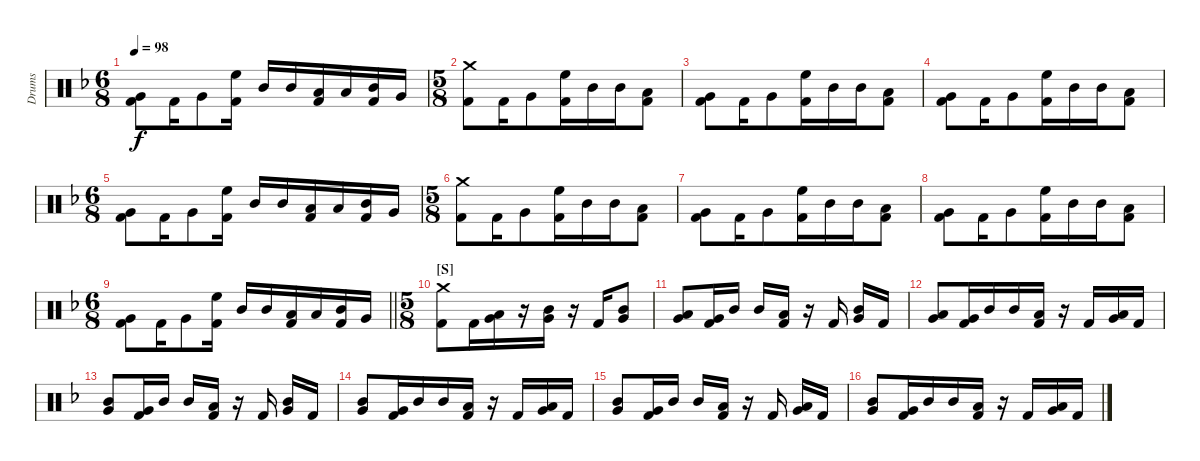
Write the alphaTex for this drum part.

\track ("Drums" "Drums") {instrument percussion}
\staff {score}
\articulation defaults
\ts (6 8)
\tempo 98
\clef neutral
\ks dminor
("Very Low Tom (hit)" "Kick (hit) 2").8{dy f} "Kick (hit) 2".16 "Very Low Tom (hit)".8{beam merge} ("High Floor Tom (hit)" "Kick (hit) 2").16{beam split} "Mid Tom (hit)".16 "Mid Tom (hit)".16 ("Low Tom (hit)" "Kick (hit) 2").16 "Low Tom (hit)".16 ("Mid Tom (hit)" "Kick (hit) 2").16 "Very Low Tom (hit)".16 |
\ts (5 8)
("Crash medium (hit)" "Kick (hit) 2").8{beam merge} "Kick (hit) 2".16 "Very Low Tom (hit)".8 ("High Floor Tom (hit)" "Kick (hit) 2").16{beam merge} "Mid Tom (hit)".16 "Mid Tom (hit)".16{beam merge} ("Low Tom (hit)" "Kick (hit) 2").8 |
("Very Low Tom (hit)" "Kick (hit) 2").8{beam merge} "Kick (hit) 2".16 "Very Low Tom (hit)".8 ("High Floor Tom (hit)" "Kick (hit) 2").16{beam merge} "Mid Tom (hit)".16 "Mid Tom (hit)".16{beam merge} ("Low Tom (hit)" "Kick (hit) 2").8 |
("Very Low Tom (hit)" "Kick (hit) 2").8{beam merge} "Kick (hit) 2".16 "Very Low Tom (hit)".8 ("High Floor Tom (hit)" "Kick (hit) 2").16{beam merge} "Mid Tom (hit)".16 "Mid Tom (hit)".16{beam merge} ("Low Tom (hit)" "Kick (hit) 2").8 |
\ts (6 8)
("Very Low Tom (hit)" "Kick (hit) 2").8 "Kick (hit) 2".16 "Very Low Tom (hit)".8{beam merge} ("High Floor Tom (hit)" "Kick (hit) 2").16{beam split} "Mid Tom (hit)".16 "Mid Tom (hit)".16 ("Low Tom (hit)" "Kick (hit) 2").16 "Low Tom (hit)".16 ("Mid Tom (hit)" "Kick (hit) 2").16 "Very Low Tom (hit)".16 |
\ts (5 8)
("Crash medium (hit)" "Kick (hit) 2").8{beam merge} "Kick (hit) 2".16 "Very Low Tom (hit)".8 ("High Floor Tom (hit)" "Kick (hit) 2").16{beam merge} "Mid Tom (hit)".16 "Mid Tom (hit)".16{beam merge} ("Low Tom (hit)" "Kick (hit) 2").8 |
("Very Low Tom (hit)" "Kick (hit) 2").8{beam merge} "Kick (hit) 2".16 "Very Low Tom (hit)".8 ("High Floor Tom (hit)" "Kick (hit) 2").16{beam merge} "Mid Tom (hit)".16 "Mid Tom (hit)".16{beam merge} ("Low Tom (hit)" "Kick (hit) 2").8 |
("Very Low Tom (hit)" "Kick (hit) 2").8{beam merge} "Kick (hit) 2".16 "Very Low Tom (hit)".8 ("High Floor Tom (hit)" "Kick (hit) 2").16{beam merge} "Mid Tom (hit)".16 "Mid Tom (hit)".16{beam merge} ("Low Tom (hit)" "Kick (hit) 2").8 |
\ts (6 8)
\barLineRight lightlight
("Very Low Tom (hit)" "Kick (hit) 2").8 "Kick (hit) 2".16 "Very Low Tom (hit)".8{beam merge} ("High Floor Tom (hit)" "Kick (hit) 2").16{beam split} "Mid Tom (hit)".16 "Mid Tom (hit)".16 ("Low Tom (hit)" "Kick (hit) 2").16 "Low Tom (hit)".16 ("Mid Tom (hit)" "Kick (hit) 2").16 "Very Low Tom (hit)".16 |
\ts (5 8)
\section ("" "[S]")
("Crash medium (hit)" "Kick (hit) 2").8{beam merge} "Kick (hit) 2".16 ("Low Tom (hit)" "Very Low Tom (hit)").16 r.16 ("Mid Tom (hit)" "Very Low Tom (hit)").16 r.16 "Kick (hit) 2".16 ("Mid Tom (hit)" "Very Low Tom (hit)").8 |
("Low Tom (hit)" "Very Low Tom (hit)").8{beam merge} ("Very Low Tom (hit)" "Kick (hit) 2").16 "Mid Tom (hit)".16{beam split} "Mid Tom (hit)".16 ("Low Tom (hit)" "Kick (hit) 2").16 r.16 "Kick (hit) 2".16{beam split} ("Mid Tom (hit)" "Very Low Tom (hit)").16 "Kick (hit) 2".16 |
("Low Tom (hit)" "Very Low Tom (hit)").8{beam merge} ("Very Low Tom (hit)" "Kick (hit) 2").16 "Mid Tom (hit)".16 "Mid Tom (hit)".16 ("Low Tom (hit)" "Kick (hit) 2").16 r.16 "Kick (hit) 2".16 ("Low Tom (hit)" "Very Low Tom (hit)").16 "Kick (hit) 2".16 |
("Mid Tom (hit)" "Very Low Tom (hit)").8{beam merge} ("Very Low Tom (hit)" "Kick (hit) 2").16 "Mid Tom (hit)".16{beam split} "Mid Tom (hit)".16 ("Low Tom (hit)" "Kick (hit) 2").16 r.16 "Kick (hit) 2".16{beam split} ("Mid Tom (hit)" "Very Low Tom (hit)").16 "Kick (hit) 2".16 |
("Mid Tom (hit)" "Very Low Tom (hit)").8{beam merge} ("Very Low Tom (hit)" "Kick (hit) 2").16 "Mid Tom (hit)".16 "Mid Tom (hit)".16 ("Low Tom (hit)" "Kick (hit) 2").16 r.16 "Kick (hit) 2".16 ("Low Tom (hit)" "Very Low Tom (hit)").16 "Kick (hit) 2".16 |
("Mid Tom (hit)" "Very Low Tom (hit)").8{beam merge} ("Very Low Tom (hit)" "Kick (hit) 2").16 "Mid Tom (hit)".16{beam split} "Mid Tom (hit)".16 ("Low Tom (hit)" "Kick (hit) 2").16 r.16 "Kick (hit) 2".16{beam split} ("Low Tom (hit)" "Very Low Tom (hit)").16 "Kick (hit) 2".16 |
("Mid Tom (hit)" "Very Low Tom (hit)").8{beam merge} ("Very Low Tom (hit)" "Kick (hit) 2").16 "Mid Tom (hit)".16 "Mid Tom (hit)".16 ("Low Tom (hit)" "Kick (hit) 2").16 r.16 "Kick (hit) 2".16 ("Low Tom (hit)" "Very Low Tom (hit)").16 "Kick (hit) 2".16
